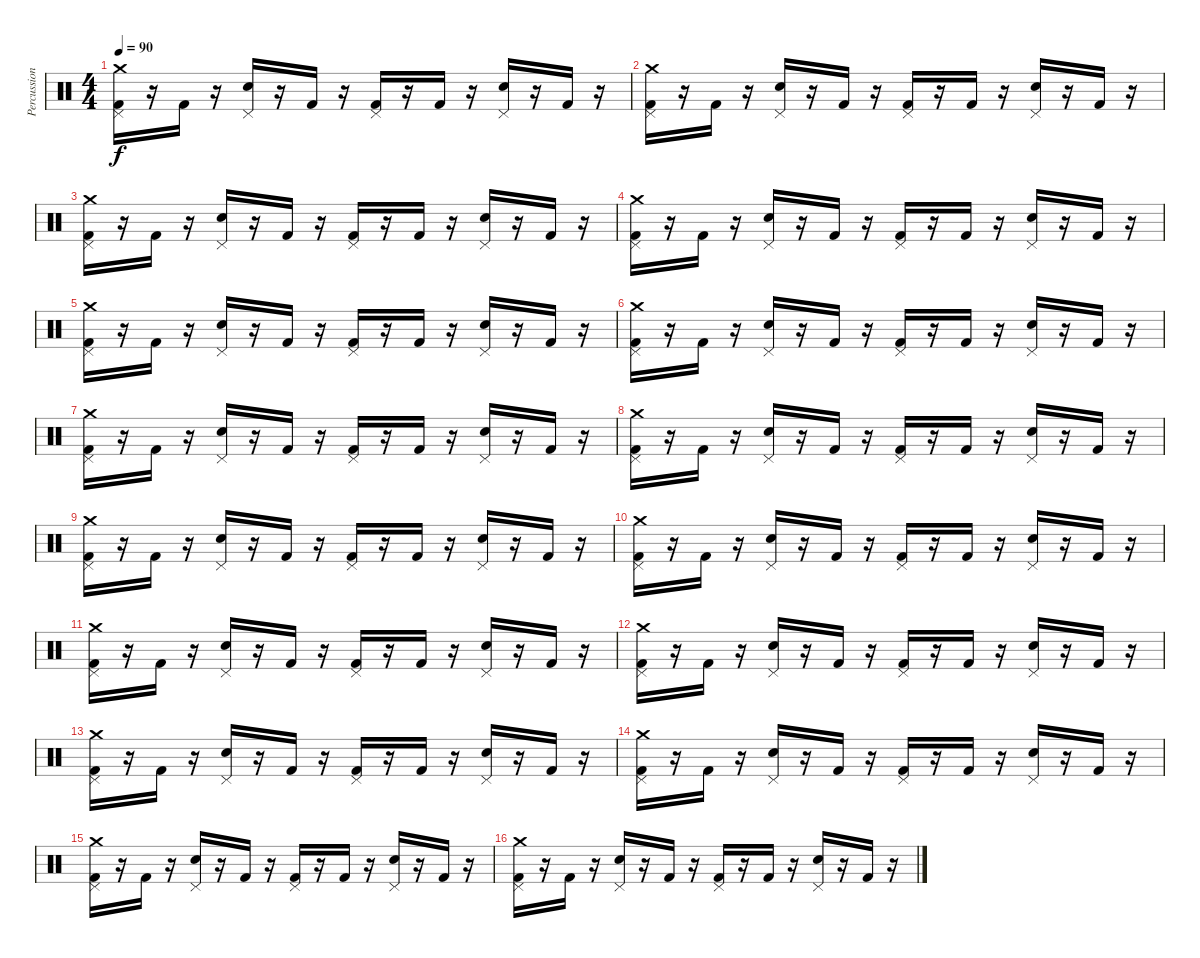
\track ("Percussion" "Percussion") {instrument percussion}
\staff {score}
\articulation defaults
\ts (4 4)
\tempo 90
\clef neutral
\ks c
("Crash medium (hit)" "Pedal Hi-Hat (hit)" "Kick (hit) 2").16{dy f} r.16 "Kick (hit) 2".16 r.16 ("Pedal Hi-Hat (hit)" "Snare (hit) 2").16 r.16 "Kick (hit) 2".16 r.16 ("Pedal Hi-Hat (hit)" "Kick (hit) 2").16 r.16 "Kick (hit) 2".16 r.16 ("Pedal Hi-Hat (hit)" "Snare (hit) 2").16 r.16 "Kick (hit) 2".16 r.16 |
("Crash medium (hit)" "Pedal Hi-Hat (hit)" "Kick (hit) 2").16 r.16 "Kick (hit) 2".16 r.16 ("Pedal Hi-Hat (hit)" "Snare (hit) 2").16 r.16 "Kick (hit) 2".16 r.16 ("Pedal Hi-Hat (hit)" "Kick (hit) 2").16 r.16 "Kick (hit) 2".16 r.16 ("Pedal Hi-Hat (hit)" "Snare (hit) 2").16 r.16 "Kick (hit) 2".16 r.16 |
("Crash medium (hit)" "Pedal Hi-Hat (hit)" "Kick (hit) 2").16 r.16 "Kick (hit) 2".16 r.16 ("Pedal Hi-Hat (hit)" "Snare (hit) 2").16 r.16 "Kick (hit) 2".16 r.16 ("Pedal Hi-Hat (hit)" "Kick (hit) 2").16 r.16 "Kick (hit) 2".16 r.16 ("Pedal Hi-Hat (hit)" "Snare (hit) 2").16 r.16 "Kick (hit) 2".16 r.16 |
("Crash medium (hit)" "Pedal Hi-Hat (hit)" "Kick (hit) 2").16 r.16 "Kick (hit) 2".16 r.16 ("Pedal Hi-Hat (hit)" "Snare (hit) 2").16 r.16 "Kick (hit) 2".16 r.16 ("Pedal Hi-Hat (hit)" "Kick (hit) 2").16 r.16 "Kick (hit) 2".16 r.16 ("Pedal Hi-Hat (hit)" "Snare (hit) 2").16 r.16 "Kick (hit) 2".16 r.16 |
("Crash medium (hit)" "Pedal Hi-Hat (hit)" "Kick (hit) 2").16 r.16 "Kick (hit) 2".16 r.16 ("Pedal Hi-Hat (hit)" "Snare (hit) 2").16 r.16 "Kick (hit) 2".16 r.16 ("Pedal Hi-Hat (hit)" "Kick (hit) 2").16 r.16 "Kick (hit) 2".16 r.16 ("Pedal Hi-Hat (hit)" "Snare (hit) 2").16 r.16 "Kick (hit) 2".16 r.16 |
("Crash medium (hit)" "Pedal Hi-Hat (hit)" "Kick (hit) 2").16 r.16 "Kick (hit) 2".16 r.16 ("Pedal Hi-Hat (hit)" "Snare (hit) 2").16 r.16 "Kick (hit) 2".16 r.16 ("Pedal Hi-Hat (hit)" "Kick (hit) 2").16 r.16 "Kick (hit) 2".16 r.16 ("Pedal Hi-Hat (hit)" "Snare (hit) 2").16 r.16 "Kick (hit) 2".16 r.16 |
("Crash medium (hit)" "Pedal Hi-Hat (hit)" "Kick (hit) 2").16 r.16 "Kick (hit) 2".16 r.16 ("Pedal Hi-Hat (hit)" "Snare (hit) 2").16 r.16 "Kick (hit) 2".16 r.16 ("Pedal Hi-Hat (hit)" "Kick (hit) 2").16 r.16 "Kick (hit) 2".16 r.16 ("Pedal Hi-Hat (hit)" "Snare (hit) 2").16 r.16 "Kick (hit) 2".16 r.16 |
("Crash medium (hit)" "Pedal Hi-Hat (hit)" "Kick (hit) 2").16 r.16 "Kick (hit) 2".16 r.16 ("Pedal Hi-Hat (hit)" "Snare (hit) 2").16 r.16 "Kick (hit) 2".16 r.16 ("Pedal Hi-Hat (hit)" "Kick (hit) 2").16 r.16 "Kick (hit) 2".16 r.16 ("Pedal Hi-Hat (hit)" "Snare (hit) 2").16 r.16 "Kick (hit) 2".16 r.16 |
("Crash medium (hit)" "Pedal Hi-Hat (hit)" "Kick (hit) 2").16 r.16 "Kick (hit) 2".16 r.16 ("Pedal Hi-Hat (hit)" "Snare (hit) 2").16 r.16 "Kick (hit) 2".16 r.16 ("Pedal Hi-Hat (hit)" "Kick (hit) 2").16 r.16 "Kick (hit) 2".16 r.16 ("Pedal Hi-Hat (hit)" "Snare (hit) 2").16 r.16 "Kick (hit) 2".16 r.16 |
("Crash medium (hit)" "Pedal Hi-Hat (hit)" "Kick (hit) 2").16 r.16 "Kick (hit) 2".16 r.16 ("Pedal Hi-Hat (hit)" "Snare (hit) 2").16 r.16 "Kick (hit) 2".16 r.16 ("Pedal Hi-Hat (hit)" "Kick (hit) 2").16 r.16 "Kick (hit) 2".16 r.16 ("Pedal Hi-Hat (hit)" "Snare (hit) 2").16 r.16 "Kick (hit) 2".16 r.16 |
("Crash medium (hit)" "Pedal Hi-Hat (hit)" "Kick (hit) 2").16 r.16 "Kick (hit) 2".16 r.16 ("Pedal Hi-Hat (hit)" "Snare (hit) 2").16 r.16 "Kick (hit) 2".16 r.16 ("Pedal Hi-Hat (hit)" "Kick (hit) 2").16 r.16 "Kick (hit) 2".16 r.16 ("Pedal Hi-Hat (hit)" "Snare (hit) 2").16 r.16 "Kick (hit) 2".16 r.16 |
("Crash medium (hit)" "Pedal Hi-Hat (hit)" "Kick (hit) 2").16 r.16 "Kick (hit) 2".16 r.16 ("Pedal Hi-Hat (hit)" "Snare (hit) 2").16 r.16 "Kick (hit) 2".16 r.16 ("Pedal Hi-Hat (hit)" "Kick (hit) 2").16 r.16 "Kick (hit) 2".16 r.16 ("Pedal Hi-Hat (hit)" "Snare (hit) 2").16 r.16 "Kick (hit) 2".16 r.16 |
("Crash medium (hit)" "Pedal Hi-Hat (hit)" "Kick (hit) 2").16 r.16 "Kick (hit) 2".16 r.16 ("Pedal Hi-Hat (hit)" "Snare (hit) 2").16 r.16 "Kick (hit) 2".16 r.16 ("Pedal Hi-Hat (hit)" "Kick (hit) 2").16 r.16 "Kick (hit) 2".16 r.16 ("Pedal Hi-Hat (hit)" "Snare (hit) 2").16 r.16 "Kick (hit) 2".16 r.16 |
("Crash medium (hit)" "Pedal Hi-Hat (hit)" "Kick (hit) 2").16 r.16 "Kick (hit) 2".16 r.16 ("Pedal Hi-Hat (hit)" "Snare (hit) 2").16 r.16 "Kick (hit) 2".16 r.16 ("Pedal Hi-Hat (hit)" "Kick (hit) 2").16 r.16 "Kick (hit) 2".16 r.16 ("Pedal Hi-Hat (hit)" "Snare (hit) 2").16 r.16 "Kick (hit) 2".16 r.16 |
("Crash medium (hit)" "Pedal Hi-Hat (hit)" "Kick (hit) 2").16 r.16 "Kick (hit) 2".16 r.16 ("Pedal Hi-Hat (hit)" "Snare (hit) 2").16 r.16 "Kick (hit) 2".16 r.16 ("Pedal Hi-Hat (hit)" "Kick (hit) 2").16 r.16 "Kick (hit) 2".16 r.16 ("Pedal Hi-Hat (hit)" "Snare (hit) 2").16 r.16 "Kick (hit) 2".16 r.16 |
("Crash medium (hit)" "Pedal Hi-Hat (hit)" "Kick (hit) 2").16 r.16 "Kick (hit) 2".16 r.16 ("Pedal Hi-Hat (hit)" "Snare (hit) 2").16 r.16 "Kick (hit) 2".16 r.16 ("Pedal Hi-Hat (hit)" "Kick (hit) 2").16 r.16 "Kick (hit) 2".16 r.16 ("Pedal Hi-Hat (hit)" "Snare (hit) 2").16 r.16 "Kick (hit) 2".16 r.16
